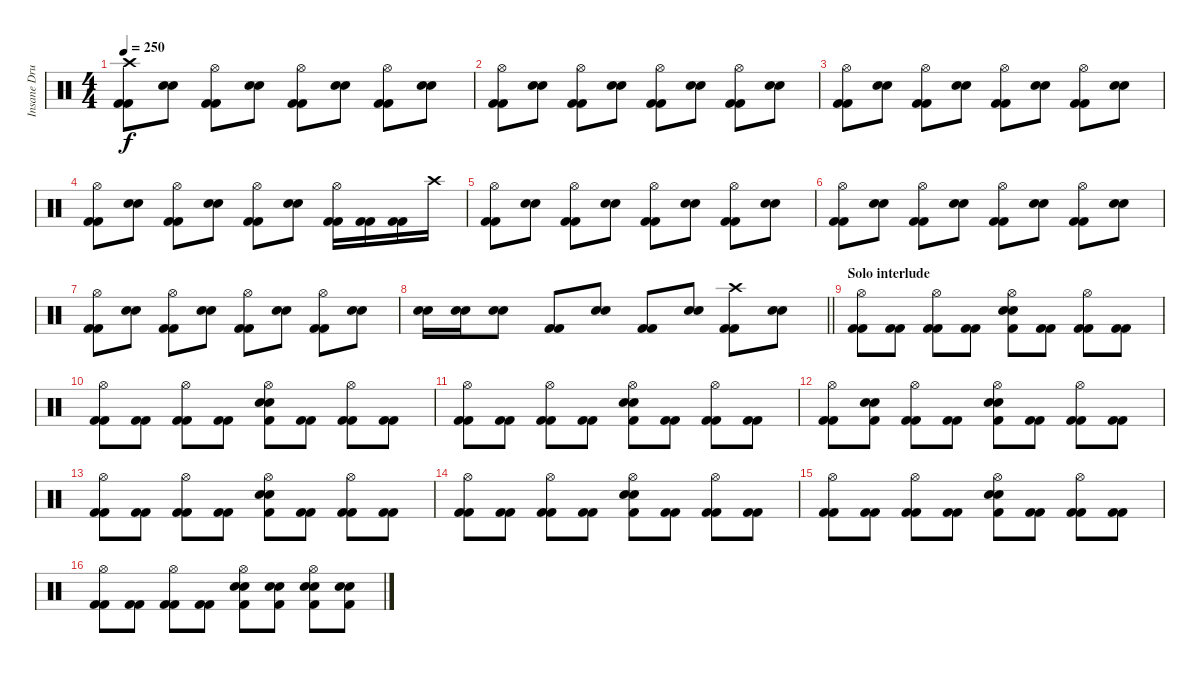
\track ("Insane Drums" "Insane Dru") {instrument percussion}
\staff {score}
\articulation defaults
\ts (4 4)
\tempo 250
\clef neutral
\ks c
("Kick (hit) 2" "Kick (hit) 2" "Crash high (hit)").8{dy f} ("Electric Snare (hit)" "Electric Snare (hit)").8 ("Kick (hit) 2" "Kick (hit) 2" "Hi-Hat (open)").8 ("Electric Snare (hit)" "Electric Snare (hit)").8 ("Kick (hit) 2" "Kick (hit) 2" "Hi-Hat (open)").8 ("Electric Snare (hit)" "Electric Snare (hit)").8 ("Kick (hit) 2" "Kick (hit) 2" "Hi-Hat (open)").8 ("Electric Snare (hit)" "Electric Snare (hit)").8 |
("Kick (hit) 2" "Kick (hit) 2" "Hi-Hat (open)").8 ("Electric Snare (hit)" "Electric Snare (hit)").8 ("Kick (hit) 2" "Kick (hit) 2" "Hi-Hat (open)").8 ("Electric Snare (hit)" "Electric Snare (hit)").8 ("Kick (hit) 2" "Kick (hit) 2" "Hi-Hat (open)").8 ("Electric Snare (hit)" "Electric Snare (hit)").8 ("Kick (hit) 2" "Kick (hit) 2" "Hi-Hat (open)").8 ("Electric Snare (hit)" "Electric Snare (hit)").8 |
("Kick (hit) 2" "Kick (hit) 2" "Hi-Hat (open)").8 ("Electric Snare (hit)" "Electric Snare (hit)").8 ("Kick (hit) 2" "Kick (hit) 2" "Hi-Hat (open)").8 ("Electric Snare (hit)" "Electric Snare (hit)").8 ("Kick (hit) 2" "Kick (hit) 2" "Hi-Hat (open)").8 ("Electric Snare (hit)" "Electric Snare (hit)").8 ("Kick (hit) 2" "Kick (hit) 2" "Hi-Hat (open)").8 ("Electric Snare (hit)" "Electric Snare (hit)").8 |
("Kick (hit) 2" "Kick (hit) 2" "Hi-Hat (open)").8 ("Electric Snare (hit)" "Electric Snare (hit)").8 ("Kick (hit) 2" "Kick (hit) 2" "Hi-Hat (open)").8 ("Electric Snare (hit)" "Electric Snare (hit)").8 ("Kick (hit) 2" "Kick (hit) 2" "Hi-Hat (open)").8 ("Electric Snare (hit)" "Electric Snare (hit)").8 ("Kick (hit) 2" "Kick (hit) 2" "Hi-Hat (open)").16 ("Kick (hit) 2" "Kick (hit) 2").16 ("Kick (hit) 2" "Kick (hit) 2").16 "Crash high (hit)".16 |
("Kick (hit) 2" "Kick (hit) 2" "Hi-Hat (open)").8 ("Electric Snare (hit)" "Electric Snare (hit)").8 ("Kick (hit) 2" "Kick (hit) 2" "Hi-Hat (open)").8 ("Electric Snare (hit)" "Electric Snare (hit)").8 ("Kick (hit) 2" "Kick (hit) 2" "Hi-Hat (open)").8 ("Electric Snare (hit)" "Electric Snare (hit)").8 ("Kick (hit) 2" "Kick (hit) 2" "Hi-Hat (open)").8 ("Electric Snare (hit)" "Electric Snare (hit)").8 |
("Kick (hit) 2" "Kick (hit) 2" "Hi-Hat (open)").8 ("Electric Snare (hit)" "Electric Snare (hit)").8 ("Kick (hit) 2" "Kick (hit) 2" "Hi-Hat (open)").8 ("Electric Snare (hit)" "Electric Snare (hit)").8 ("Kick (hit) 2" "Kick (hit) 2" "Hi-Hat (open)").8 ("Electric Snare (hit)" "Electric Snare (hit)").8 ("Kick (hit) 2" "Kick (hit) 2" "Hi-Hat (open)").8 ("Electric Snare (hit)" "Electric Snare (hit)").8 |
("Kick (hit) 2" "Kick (hit) 2" "Hi-Hat (open)").8 ("Electric Snare (hit)" "Electric Snare (hit)").8 ("Kick (hit) 2" "Kick (hit) 2" "Hi-Hat (open)").8 ("Electric Snare (hit)" "Electric Snare (hit)").8 ("Kick (hit) 2" "Kick (hit) 2" "Hi-Hat (open)").8 ("Electric Snare (hit)" "Electric Snare (hit)").8 ("Kick (hit) 2" "Kick (hit) 2" "Hi-Hat (open)").8 ("Electric Snare (hit)" "Electric Snare (hit)").8 |
\barLineRight lightlight
("Electric Snare (hit)" "Electric Snare (hit)").16 ("Electric Snare (hit)" "Electric Snare (hit)").16 ("Electric Snare (hit)" "Electric Snare (hit)").8 ("Kick (hit) 2" "Kick (hit) 2").8 ("Electric Snare (hit)" "Electric Snare (hit)").8 ("Kick (hit) 2" "Kick (hit) 2").8 ("Electric Snare (hit)" "Electric Snare (hit)").8 ("Kick (hit) 2" "Kick (hit) 2" "Crash high (hit)").8 ("Electric Snare (hit)" "Electric Snare (hit)").8 |
\section ("" "Solo interlude")
("Kick (hit) 2" "Kick (hit) 2" "Hi-Hat (open)").8 ("Kick (hit) 2" "Kick (hit) 2").8 ("Kick (hit) 2" "Kick (hit) 2" "Hi-Hat (open)").8 ("Kick (hit) 2" "Kick (hit) 2").8 ("Kick (hit) 2" "Electric Snare (hit)" "Electric Snare (hit)" "Hi-Hat (open)").8 ("Kick (hit) 2" "Kick (hit) 2").8 ("Kick (hit) 2" "Kick (hit) 2" "Hi-Hat (open)").8 ("Kick (hit) 2" "Kick (hit) 2").8 |
("Kick (hit) 2" "Kick (hit) 2" "Hi-Hat (open)").8 ("Kick (hit) 2" "Kick (hit) 2").8 ("Kick (hit) 2" "Kick (hit) 2" "Hi-Hat (open)").8 ("Kick (hit) 2" "Kick (hit) 2").8 ("Kick (hit) 2" "Electric Snare (hit)" "Electric Snare (hit)" "Hi-Hat (open)").8 ("Kick (hit) 2" "Kick (hit) 2").8 ("Kick (hit) 2" "Kick (hit) 2" "Hi-Hat (open)").8 ("Kick (hit) 2" "Kick (hit) 2").8 |
("Kick (hit) 2" "Kick (hit) 2" "Hi-Hat (open)").8 ("Kick (hit) 2" "Kick (hit) 2").8 ("Kick (hit) 2" "Kick (hit) 2" "Hi-Hat (open)").8 ("Kick (hit) 2" "Kick (hit) 2").8 ("Kick (hit) 2" "Electric Snare (hit)" "Electric Snare (hit)" "Hi-Hat (open)").8 ("Kick (hit) 2" "Kick (hit) 2").8 ("Kick (hit) 2" "Kick (hit) 2" "Hi-Hat (open)").8 ("Kick (hit) 2" "Kick (hit) 2").8 |
("Kick (hit) 2" "Kick (hit) 2" "Hi-Hat (open)").8 ("Kick (hit) 2" "Electric Snare (hit)" "Electric Snare (hit)").8 ("Kick (hit) 2" "Kick (hit) 2" "Hi-Hat (open)").8 ("Kick (hit) 2" "Kick (hit) 2").8 ("Kick (hit) 2" "Electric Snare (hit)" "Electric Snare (hit)" "Hi-Hat (open)").8 ("Kick (hit) 2" "Kick (hit) 2").8 ("Kick (hit) 2" "Kick (hit) 2" "Hi-Hat (open)").8 ("Kick (hit) 2" "Kick (hit) 2").8 |
("Kick (hit) 2" "Kick (hit) 2" "Hi-Hat (open)").8 ("Kick (hit) 2" "Kick (hit) 2").8 ("Kick (hit) 2" "Kick (hit) 2" "Hi-Hat (open)").8 ("Kick (hit) 2" "Kick (hit) 2").8 ("Kick (hit) 2" "Electric Snare (hit)" "Electric Snare (hit)" "Hi-Hat (open)").8 ("Kick (hit) 2" "Kick (hit) 2").8 ("Kick (hit) 2" "Kick (hit) 2" "Hi-Hat (open)").8 ("Kick (hit) 2" "Kick (hit) 2").8 |
("Kick (hit) 2" "Kick (hit) 2" "Hi-Hat (open)").8 ("Kick (hit) 2" "Kick (hit) 2").8 ("Kick (hit) 2" "Kick (hit) 2" "Hi-Hat (open)").8 ("Kick (hit) 2" "Kick (hit) 2").8 ("Kick (hit) 2" "Electric Snare (hit)" "Electric Snare (hit)" "Hi-Hat (open)").8 ("Kick (hit) 2" "Kick (hit) 2").8 ("Kick (hit) 2" "Kick (hit) 2" "Hi-Hat (open)").8 ("Kick (hit) 2" "Kick (hit) 2").8 |
("Kick (hit) 2" "Kick (hit) 2" "Hi-Hat (open)").8 ("Kick (hit) 2" "Kick (hit) 2").8 ("Kick (hit) 2" "Kick (hit) 2" "Hi-Hat (open)").8 ("Kick (hit) 2" "Kick (hit) 2").8 ("Kick (hit) 2" "Electric Snare (hit)" "Electric Snare (hit)" "Hi-Hat (open)").8 ("Kick (hit) 2" "Kick (hit) 2").8 ("Kick (hit) 2" "Kick (hit) 2" "Hi-Hat (open)").8 ("Kick (hit) 2" "Kick (hit) 2").8 |
("Kick (hit) 2" "Kick (hit) 2" "Hi-Hat (open)").8 ("Kick (hit) 2" "Kick (hit) 2").8 ("Kick (hit) 2" "Kick (hit) 2" "Hi-Hat (open)").8 ("Kick (hit) 2" "Kick (hit) 2").8 ("Kick (hit) 2" "Electric Snare (hit)" "Electric Snare (hit)" "Hi-Hat (open)").8 ("Kick (hit) 2" "Electric Snare (hit)" "Electric Snare (hit)").8 ("Kick (hit) 2" "Electric Snare (hit)" "Electric Snare (hit)" "Hi-Hat (open)").8 ("Kick (hit) 2" "Electric Snare (hit)" "Electric Snare (hit)").8
